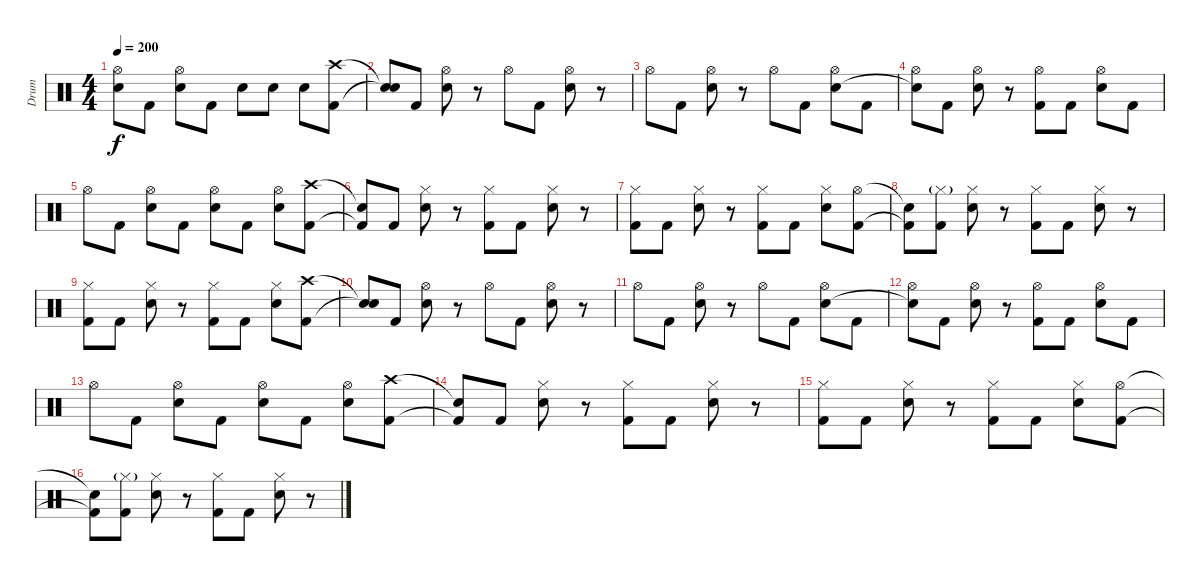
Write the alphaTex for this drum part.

\track ("Drum" "Drum") {instrument percussion}
\staff {score}
\articulation defaults
\ts (4 4)
\tempo 200
\clef neutral
\ks c
("Hi-Hat (open)" "Electric Snare (hit)").8{dy f} "Kick (hit) 2".8 ("Hi-Hat (open)" "Electric Snare (hit)").8 "Kick (hit) 2".8 "Electric Snare (hit)".8 "Electric Snare (hit)".8 "Electric Snare (hit)".8 ("Crash high (hit)" "Kick (hit) 2").8 |
("Snare (hit)"{t} "Snare (hit)"{t}).8 "Kick (hit) 2".8 ("Hi-Hat (open)" "Electric Snare (hit)").8 r.8 "Hi-Hat (open)".8 "Kick (hit) 2".8 ("Hi-Hat (open)" "Electric Snare (hit)").8 r.8 |
"Hi-Hat (open)".8 "Kick (hit) 2".8 ("Hi-Hat (open)" "Electric Snare (hit)").8 r.8 "Hi-Hat (open)".8 "Kick (hit) 2".8 ("Hi-Hat (open)" "Electric Snare (hit)").8 "Kick (hit) 2".8 |
("Hi-Hat (open)" "Snare (hit)"{t}).8 "Kick (hit) 2".8 ("Hi-Hat (open)" "Electric Snare (hit)").8 r.8 ("Hi-Hat (open)" "Kick (hit) 2").8 "Kick (hit) 2".8 ("Hi-Hat (open)" "Electric Snare (hit)").8 "Kick (hit) 2".8 |
"Hi-Hat (open)".8 "Kick (hit) 2".8 ("Hi-Hat (open)" "Electric Snare (hit)").8 "Kick (hit) 2".8 ("Hi-Hat (open)" "Electric Snare (hit)").8 "Kick (hit) 2".8 ("Hi-Hat (open)" "Electric Snare (hit)").8 ("Crash high (hit)" "Kick (hit) 2").8 |
("Snare (hit)"{t} "Kick (hit) 2"{t}).8 "Kick (hit) 2".8 ("Hi-Hat (closed)" "Electric Snare (hit)").8 r.8 ("Hi-Hat (closed)" "Kick (hit) 2").8 "Kick (hit) 2".8 ("Hi-Hat (closed)" "Electric Snare (hit)").8 r.8 |
("Hi-Hat (closed)" "Kick (hit) 2").8 "Kick (hit) 2".8 ("Hi-Hat (closed)" "Electric Snare (hit)").8 r.8 ("Hi-Hat (closed)" "Kick (hit) 2").8 "Kick (hit) 2".8 ("Hi-Hat (closed)" "Electric Snare (hit)").8 ("Hi-Hat (open)" "Kick (hit) 2").8 |
("Snare (hit)"{t} "Kick (hit) 2"{t}).8 ("Hi-Hat (closed)"{g} "Kick (hit) 2").8 ("Hi-Hat (closed)" "Electric Snare (hit)").8 r.8 ("Hi-Hat (closed)" "Kick (hit) 2").8 "Kick (hit) 2".8 ("Hi-Hat (closed)" "Electric Snare (hit)").8 r.8 |
("Hi-Hat (closed)" "Kick (hit) 2").8 "Kick (hit) 2".8 ("Hi-Hat (closed)" "Electric Snare (hit)").8 r.8 ("Hi-Hat (closed)" "Kick (hit) 2").8 "Kick (hit) 2".8 ("Hi-Hat (closed)" "Electric Snare (hit)").8 ("Crash high (hit)" "Kick (hit) 2").8 |
("Snare (hit)"{t} "Snare (hit)"{t}).8 "Kick (hit) 2".8 ("Hi-Hat (open)" "Electric Snare (hit)").8 r.8 "Hi-Hat (open)".8 "Kick (hit) 2".8 ("Hi-Hat (open)" "Electric Snare (hit)").8 r.8 |
"Hi-Hat (open)".8 "Kick (hit) 2".8 ("Hi-Hat (open)" "Electric Snare (hit)").8 r.8 "Hi-Hat (open)".8 "Kick (hit) 2".8 ("Hi-Hat (open)" "Electric Snare (hit)").8 "Kick (hit) 2".8 |
("Hi-Hat (open)" "Snare (hit)"{t}).8 "Kick (hit) 2".8 ("Hi-Hat (open)" "Electric Snare (hit)").8 r.8 ("Hi-Hat (open)" "Kick (hit) 2").8 "Kick (hit) 2".8 ("Hi-Hat (open)" "Electric Snare (hit)").8 "Kick (hit) 2".8 |
"Hi-Hat (open)".8 "Kick (hit) 2".8 ("Hi-Hat (open)" "Electric Snare (hit)").8 "Kick (hit) 2".8 ("Hi-Hat (open)" "Electric Snare (hit)").8 "Kick (hit) 2".8 ("Hi-Hat (open)" "Electric Snare (hit)").8 ("Crash high (hit)" "Kick (hit) 2").8 |
("Snare (hit)"{t} "Kick (hit) 2"{t}).8 "Kick (hit) 2".8 ("Hi-Hat (closed)" "Electric Snare (hit)").8 r.8 ("Hi-Hat (closed)" "Kick (hit) 2").8 "Kick (hit) 2".8 ("Hi-Hat (closed)" "Electric Snare (hit)").8 r.8 |
("Hi-Hat (closed)" "Kick (hit) 2").8 "Kick (hit) 2".8 ("Hi-Hat (closed)" "Electric Snare (hit)").8 r.8 ("Hi-Hat (closed)" "Kick (hit) 2").8 "Kick (hit) 2".8 ("Hi-Hat (closed)" "Electric Snare (hit)").8 ("Hi-Hat (open)" "Kick (hit) 2").8 |
("Snare (hit)"{t} "Kick (hit) 2"{t}).8 ("Hi-Hat (closed)"{g} "Kick (hit) 2").8 ("Hi-Hat (closed)" "Electric Snare (hit)").8 r.8 ("Hi-Hat (closed)" "Kick (hit) 2").8 "Kick (hit) 2".8 ("Hi-Hat (closed)" "Electric Snare (hit)").8 r.8
